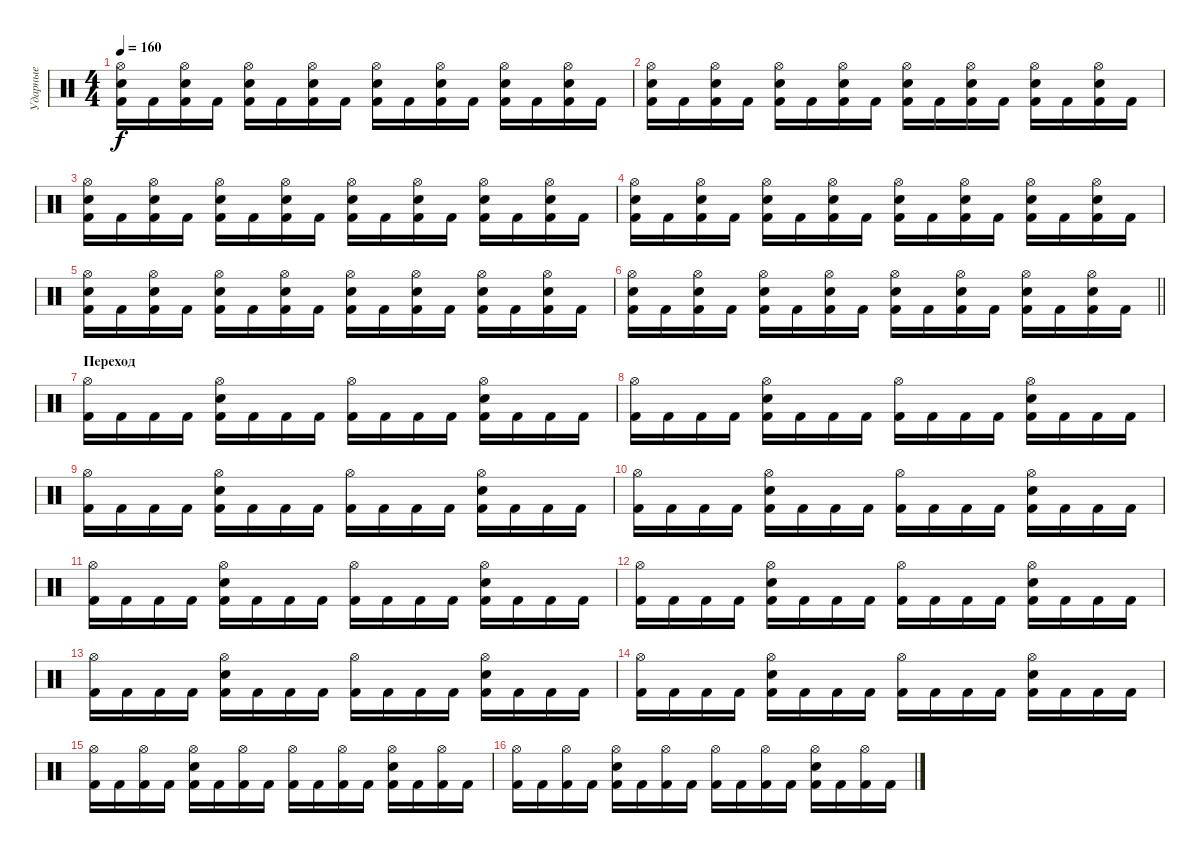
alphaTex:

\track ("Ударные" "Ударные") {instrument percussion}
\staff {score}
\articulation defaults
\ts (4 4)
\tempo 160
\clef neutral
\ks c
("Hi-Hat (open)" "Snare (hit) 2" "Kick (hit) 2").16{dy f} "Kick (hit) 2".16 ("Hi-Hat (open)" "Snare (hit) 2" "Kick (hit) 2").16 "Kick (hit) 2".16 ("Hi-Hat (open)" "Snare (hit) 2" "Kick (hit) 2").16 "Kick (hit) 2".16 ("Hi-Hat (open)" "Snare (hit) 2" "Kick (hit) 2").16 "Kick (hit) 2".16 ("Hi-Hat (open)" "Snare (hit) 2" "Kick (hit) 2").16 "Kick (hit) 2".16 ("Hi-Hat (open)" "Snare (hit) 2" "Kick (hit) 2").16 "Kick (hit) 2".16 ("Hi-Hat (open)" "Snare (hit) 2" "Kick (hit) 2").16 "Kick (hit) 2".16 ("Hi-Hat (open)" "Snare (hit) 2" "Kick (hit) 2").16 "Kick (hit) 2".16 |
("Hi-Hat (open)" "Snare (hit) 2" "Kick (hit) 2").16 "Kick (hit) 2".16 ("Hi-Hat (open)" "Snare (hit) 2" "Kick (hit) 2").16 "Kick (hit) 2".16 ("Hi-Hat (open)" "Snare (hit) 2" "Kick (hit) 2").16 "Kick (hit) 2".16 ("Hi-Hat (open)" "Snare (hit) 2" "Kick (hit) 2").16 "Kick (hit) 2".16 ("Hi-Hat (open)" "Snare (hit) 2" "Kick (hit) 2").16 "Kick (hit) 2".16 ("Hi-Hat (open)" "Snare (hit) 2" "Kick (hit) 2").16 "Kick (hit) 2".16 ("Hi-Hat (open)" "Snare (hit) 2" "Kick (hit) 2").16 "Kick (hit) 2".16 ("Hi-Hat (open)" "Snare (hit) 2" "Kick (hit) 2").16 "Kick (hit) 2".16 |
("Hi-Hat (open)" "Snare (hit) 2" "Kick (hit) 2").16 "Kick (hit) 2".16 ("Hi-Hat (open)" "Snare (hit) 2" "Kick (hit) 2").16 "Kick (hit) 2".16 ("Hi-Hat (open)" "Snare (hit) 2" "Kick (hit) 2").16 "Kick (hit) 2".16 ("Hi-Hat (open)" "Snare (hit) 2" "Kick (hit) 2").16 "Kick (hit) 2".16 ("Hi-Hat (open)" "Snare (hit) 2" "Kick (hit) 2").16 "Kick (hit) 2".16 ("Hi-Hat (open)" "Snare (hit) 2" "Kick (hit) 2").16 "Kick (hit) 2".16 ("Hi-Hat (open)" "Snare (hit) 2" "Kick (hit) 2").16 "Kick (hit) 2".16 ("Hi-Hat (open)" "Snare (hit) 2" "Kick (hit) 2").16 "Kick (hit) 2".16 |
("Hi-Hat (open)" "Snare (hit) 2" "Kick (hit) 2").16 "Kick (hit) 2".16 ("Hi-Hat (open)" "Snare (hit) 2" "Kick (hit) 2").16 "Kick (hit) 2".16 ("Hi-Hat (open)" "Snare (hit) 2" "Kick (hit) 2").16 "Kick (hit) 2".16 ("Hi-Hat (open)" "Snare (hit) 2" "Kick (hit) 2").16 "Kick (hit) 2".16 ("Hi-Hat (open)" "Snare (hit) 2" "Kick (hit) 2").16 "Kick (hit) 2".16 ("Hi-Hat (open)" "Snare (hit) 2" "Kick (hit) 2").16 "Kick (hit) 2".16 ("Hi-Hat (open)" "Snare (hit) 2" "Kick (hit) 2").16 "Kick (hit) 2".16 ("Hi-Hat (open)" "Snare (hit) 2" "Kick (hit) 2").16 "Kick (hit) 2".16 |
("Hi-Hat (open)" "Snare (hit) 2" "Kick (hit) 2").16 "Kick (hit) 2".16 ("Hi-Hat (open)" "Snare (hit) 2" "Kick (hit) 2").16 "Kick (hit) 2".16 ("Hi-Hat (open)" "Snare (hit) 2" "Kick (hit) 2").16 "Kick (hit) 2".16 ("Hi-Hat (open)" "Snare (hit) 2" "Kick (hit) 2").16 "Kick (hit) 2".16 ("Hi-Hat (open)" "Snare (hit) 2" "Kick (hit) 2").16 "Kick (hit) 2".16 ("Hi-Hat (open)" "Snare (hit) 2" "Kick (hit) 2").16 "Kick (hit) 2".16 ("Hi-Hat (open)" "Snare (hit) 2" "Kick (hit) 2").16 "Kick (hit) 2".16 ("Hi-Hat (open)" "Snare (hit) 2" "Kick (hit) 2").16 "Kick (hit) 2".16 |
\barLineRight lightlight
("Hi-Hat (open)" "Snare (hit) 2" "Kick (hit) 2").16 "Kick (hit) 2".16 ("Hi-Hat (open)" "Snare (hit) 2" "Kick (hit) 2").16 "Kick (hit) 2".16 ("Hi-Hat (open)" "Snare (hit) 2" "Kick (hit) 2").16 "Kick (hit) 2".16 ("Hi-Hat (open)" "Snare (hit) 2" "Kick (hit) 2").16 "Kick (hit) 2".16 ("Hi-Hat (open)" "Snare (hit) 2" "Kick (hit) 2").16 "Kick (hit) 2".16 ("Hi-Hat (open)" "Snare (hit) 2" "Kick (hit) 2").16 "Kick (hit) 2".16 ("Hi-Hat (open)" "Snare (hit) 2" "Kick (hit) 2").16 "Kick (hit) 2".16 ("Hi-Hat (open)" "Snare (hit) 2" "Kick (hit) 2").16 "Kick (hit) 2".16 |
\section ("" "Переход")
("Hi-Hat (open)" "Kick (hit) 2").16 "Kick (hit) 2".16 "Kick (hit) 2".16 "Kick (hit) 2".16 ("Hi-Hat (open)" "Snare (hit) 2" "Kick (hit) 2").16 "Kick (hit) 2".16 "Kick (hit) 2".16 "Kick (hit) 2".16 ("Hi-Hat (open)" "Kick (hit) 2").16 "Kick (hit) 2".16 "Kick (hit) 2".16 "Kick (hit) 2".16 ("Hi-Hat (open)" "Snare (hit) 2" "Kick (hit) 2").16 "Kick (hit) 2".16 "Kick (hit) 2".16 "Kick (hit) 2".16 |
("Hi-Hat (open)" "Kick (hit) 2").16 "Kick (hit) 2".16 "Kick (hit) 2".16 "Kick (hit) 2".16 ("Hi-Hat (open)" "Snare (hit) 2" "Kick (hit) 2").16 "Kick (hit) 2".16 "Kick (hit) 2".16 "Kick (hit) 2".16 ("Hi-Hat (open)" "Kick (hit) 2").16 "Kick (hit) 2".16 "Kick (hit) 2".16 "Kick (hit) 2".16 ("Hi-Hat (open)" "Snare (hit) 2" "Kick (hit) 2").16 "Kick (hit) 2".16 "Kick (hit) 2".16 "Kick (hit) 2".16 |
("Hi-Hat (open)" "Kick (hit) 2").16 "Kick (hit) 2".16 "Kick (hit) 2".16 "Kick (hit) 2".16 ("Hi-Hat (open)" "Snare (hit) 2" "Kick (hit) 2").16 "Kick (hit) 2".16 "Kick (hit) 2".16 "Kick (hit) 2".16 ("Hi-Hat (open)" "Kick (hit) 2").16 "Kick (hit) 2".16 "Kick (hit) 2".16 "Kick (hit) 2".16 ("Hi-Hat (open)" "Snare (hit) 2" "Kick (hit) 2").16 "Kick (hit) 2".16 "Kick (hit) 2".16 "Kick (hit) 2".16 |
("Hi-Hat (open)" "Kick (hit) 2").16 "Kick (hit) 2".16 "Kick (hit) 2".16 "Kick (hit) 2".16 ("Hi-Hat (open)" "Snare (hit) 2" "Kick (hit) 2").16 "Kick (hit) 2".16 "Kick (hit) 2".16 "Kick (hit) 2".16 ("Hi-Hat (open)" "Kick (hit) 2").16 "Kick (hit) 2".16 "Kick (hit) 2".16 "Kick (hit) 2".16 ("Hi-Hat (open)" "Snare (hit) 2" "Kick (hit) 2").16 "Kick (hit) 2".16 "Kick (hit) 2".16 "Kick (hit) 2".16 |
("Hi-Hat (open)" "Kick (hit) 2").16 "Kick (hit) 2".16 "Kick (hit) 2".16 "Kick (hit) 2".16 ("Hi-Hat (open)" "Snare (hit) 2" "Kick (hit) 2").16 "Kick (hit) 2".16 "Kick (hit) 2".16 "Kick (hit) 2".16 ("Hi-Hat (open)" "Kick (hit) 2").16 "Kick (hit) 2".16 "Kick (hit) 2".16 "Kick (hit) 2".16 ("Hi-Hat (open)" "Snare (hit) 2" "Kick (hit) 2").16 "Kick (hit) 2".16 "Kick (hit) 2".16 "Kick (hit) 2".16 |
("Hi-Hat (open)" "Kick (hit) 2").16 "Kick (hit) 2".16 "Kick (hit) 2".16 "Kick (hit) 2".16 ("Hi-Hat (open)" "Snare (hit) 2" "Kick (hit) 2").16 "Kick (hit) 2".16 "Kick (hit) 2".16 "Kick (hit) 2".16 ("Hi-Hat (open)" "Kick (hit) 2").16 "Kick (hit) 2".16 "Kick (hit) 2".16 "Kick (hit) 2".16 ("Hi-Hat (open)" "Snare (hit) 2" "Kick (hit) 2").16 "Kick (hit) 2".16 "Kick (hit) 2".16 "Kick (hit) 2".16 |
("Hi-Hat (open)" "Kick (hit) 2").16 "Kick (hit) 2".16 "Kick (hit) 2".16 "Kick (hit) 2".16 ("Hi-Hat (open)" "Snare (hit) 2" "Kick (hit) 2").16 "Kick (hit) 2".16 "Kick (hit) 2".16 "Kick (hit) 2".16 ("Hi-Hat (open)" "Kick (hit) 2").16 "Kick (hit) 2".16 "Kick (hit) 2".16 "Kick (hit) 2".16 ("Hi-Hat (open)" "Snare (hit) 2" "Kick (hit) 2").16 "Kick (hit) 2".16 "Kick (hit) 2".16 "Kick (hit) 2".16 |
("Hi-Hat (open)" "Kick (hit) 2").16 "Kick (hit) 2".16 "Kick (hit) 2".16 "Kick (hit) 2".16 ("Hi-Hat (open)" "Snare (hit) 2" "Kick (hit) 2").16 "Kick (hit) 2".16 "Kick (hit) 2".16 "Kick (hit) 2".16 ("Hi-Hat (open)" "Kick (hit) 2").16 "Kick (hit) 2".16 "Kick (hit) 2".16 "Kick (hit) 2".16 ("Hi-Hat (open)" "Snare (hit) 2" "Kick (hit) 2").16 "Kick (hit) 2".16 "Kick (hit) 2".16 "Kick (hit) 2".16 |
("Hi-Hat (open)" "Kick (hit) 2").16 "Kick (hit) 2".16 ("Hi-Hat (open)" "Kick (hit) 2").16 "Kick (hit) 2".16 ("Hi-Hat (open)" "Snare (hit) 2" "Kick (hit) 2").16 "Kick (hit) 2".16 ("Hi-Hat (open)" "Kick (hit) 2").16 "Kick (hit) 2".16 ("Hi-Hat (open)" "Kick (hit) 2").16 "Kick (hit) 2".16 ("Hi-Hat (open)" "Kick (hit) 2").16 "Kick (hit) 2".16 ("Hi-Hat (open)" "Snare (hit) 2" "Kick (hit) 2").16 "Kick (hit) 2".16 ("Hi-Hat (open)" "Kick (hit) 2").16 "Kick (hit) 2".16 |
("Hi-Hat (open)" "Kick (hit) 2").16 "Kick (hit) 2".16 ("Hi-Hat (open)" "Kick (hit) 2").16 "Kick (hit) 2".16 ("Hi-Hat (open)" "Snare (hit) 2" "Kick (hit) 2").16 "Kick (hit) 2".16 ("Hi-Hat (open)" "Kick (hit) 2").16 "Kick (hit) 2".16 ("Hi-Hat (open)" "Kick (hit) 2").16 "Kick (hit) 2".16 ("Hi-Hat (open)" "Kick (hit) 2").16 "Kick (hit) 2".16 ("Hi-Hat (open)" "Snare (hit) 2" "Kick (hit) 2").16 "Kick (hit) 2".16 ("Hi-Hat (open)" "Kick (hit) 2").16 "Kick (hit) 2".16
